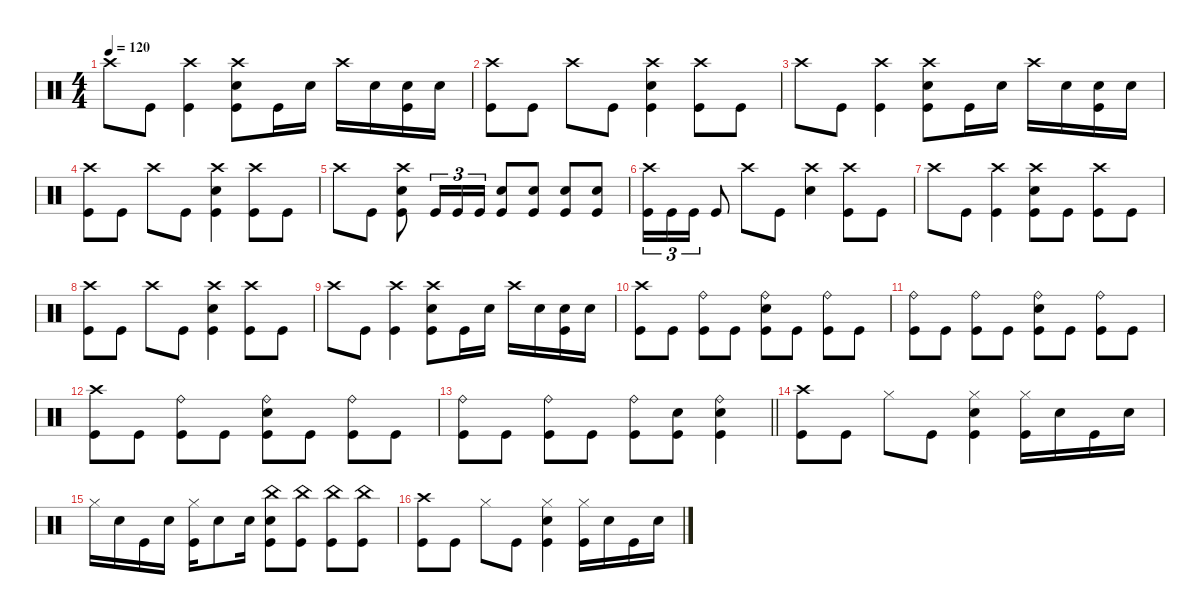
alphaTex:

\defaultSystemsLayout 4
\hideDynamics
\bracketExtendMode nobrackets
\singleTrackTrackNamePolicy hidden
\multiTrackTrackNamePolicy hidden
\firstSystemTrackNameMode fullname
\firstSystemTrackNameOrientation horizontal
\otherSystemsTrackNameOrientation horizontal
\track ("Drums" "drm.") {instrument percussion}
\staff {score}
\articulation defaults
\ts (4 4)
\tempo 120
\clef neutral
\ks c "Crash high (hit)".8{dy f beam Down} "Kick (hit)".8{beam Down}
("Crash high (hit)" "Kick (hit)").4{beam Down} ("Snare (hit) 2" "Crash high (hit)" "Kick (hit)").8{beam Down} "Kick (hit)".16{beam Down} "Snare (hit) 2".16{beam Down} "Crash high (hit)".16{beam Down} "Snare (hit) 2".16{beam Down} ("Snare (hit) 2" "Kick (hit)").16{beam Down} "Snare (hit) 2".16{beam Down} |
("Kick (hit)" "Crash high (hit)").8{beam Down} "Kick (hit)".8{beam Down} "Crash high (hit)".8{beam Down} "Kick (hit)".8{beam Down} ("Kick (hit)" "Snare (hit) 2" "Crash high (hit)").4{beam Down} ("Kick (hit)" "Crash high (hit)").8{beam Down} "Kick (hit)".8{beam Down} |
"Crash high (hit)".8{beam Down} "Kick (hit)".8{beam Down} ("Kick (hit)" "Crash high (hit)").4{beam Down} ("Kick (hit)" "Snare (hit) 2" "Crash high (hit)").8{beam Down} "Kick (hit)".16{beam Down} "Snare (hit) 2".16{beam Down} "Crash high (hit)".16{beam Down} "Snare (hit) 2".16{beam Down} ("Snare (hit) 2" "Kick (hit)").16{beam Down} "Snare (hit) 2".16{beam Down} |
("Kick (hit)" "Crash high (hit)").8{beam Down} "Kick (hit)".8{beam Down} "Crash high (hit)".8{beam Down} "Kick (hit)".8{beam Down} ("Kick (hit)" "Snare (hit) 2" "Crash high (hit)").4{beam Down} ("Kick (hit)" "Crash high (hit)").8{beam Down} "Kick (hit)".8{beam Down} |
"Crash high (hit)".8{beam Down} "Kick (hit)".8{beam Down} ("Kick (hit)" "Snare (hit) 2" "Crash high (hit)").8{beam Down} "Kick (hit)".16{tu (3 2) beam Up} "Kick (hit)".16{tu (3 2) beam Up} "Kick (hit)".16{tu (3 2) beam Up} ("Snare (hit) 2" "Kick (hit)").8{beam Up} ("Snare (hit) 2" "Kick (hit)").8{beam Up} ("Snare (hit) 2" "Kick (hit)").8{beam Up} ("Snare (hit) 2" "Kick (hit)").8{beam Up} |
("Kick (hit)" "Crash high (hit)").16{tu (3 2) beam Down} "Kick (hit)".16{tu (3 2) beam Down} "Kick (hit)".16{tu (3 2) beam Down} "Kick (hit)".8{beam Up} "Crash high (hit)".8{beam Down} "Kick (hit)".8{beam Down} ("Snare (hit) 2" "Crash high (hit)").4{beam Down} ("Kick (hit)" "Crash high (hit)").8{beam Down} "Kick (hit)".8{beam Down} |
"Crash high (hit)".8{beam Down} "Kick (hit)".8{beam Down} ("Crash high (hit)" "Kick (hit)").4{beam Down} ("Snare (hit) 2" "Crash high (hit)" "Kick (hit)").8{beam Down} "Kick (hit)".8{beam Down} ("Kick (hit)" "Crash high (hit)").8{beam Down} "Kick (hit)".8{beam Down} |
("Kick (hit)" "Crash high (hit)").8{beam Down} "Kick (hit)".8{beam Down} "Crash high (hit)".8{beam Down} "Kick (hit)".8{beam Down} ("Kick (hit)" "Snare (hit) 2" "Crash high (hit)").4{beam Down} ("Kick (hit)" "Crash high (hit)").8{beam Down} "Kick (hit)".8{beam Down} |
"Crash high (hit)".8{beam Down} "Kick (hit)".8{beam Down} ("Kick (hit)" "Crash high (hit)").4{beam Down} ("Kick (hit)" "Snare (hit) 2" "Crash high (hit)").8{beam Down} "Kick (hit)".16{beam Down} "Snare (hit) 2".16{beam Down} "Crash high (hit)".16{beam Down} "Snare (hit) 2".16{beam Down} ("Snare (hit) 2" "Kick (hit)").16{beam Down} "Snare (hit) 2".16{beam Down} |
("Crash high (hit)" "Kick (hit)").8{beam Down} "Kick (hit)".8{beam Down} ("Ride (bell)" "Kick (hit)").8{beam Down} "Kick (hit)".8{beam Down} ("Snare (hit) 2" "Ride (bell)" "Kick (hit)").8{beam Down} "Kick (hit)".8{beam Down} ("Ride (bell)" "Kick (hit)").8{beam Down} "Kick (hit)".8{beam Down} |
("Kick (hit)" "Ride (bell)").8{beam Down} "Kick (hit)".8{beam Down} ("Kick (hit)" "Ride (bell)").8{beam Down} "Kick (hit)".8{beam Down} ("Kick (hit)" "Snare (hit) 2" "Ride (bell)").8{beam Down} "Kick (hit)".8{beam Down} ("Kick (hit)" "Ride (bell)").8{beam Down} "Kick (hit)".8{beam Down} |
("Kick (hit)" "Crash high (hit)").8{beam Down} "Kick (hit)".8{beam Down} ("Kick (hit)" "Ride (bell)").8{beam Down} "Kick (hit)".8{beam Down} ("Kick (hit)" "Snare (hit) 2" "Ride (bell)").8{beam Down} "Kick (hit)".8{beam Down} ("Kick (hit)" "Ride (bell)").8{beam Down} "Kick (hit)".8{beam Down} |
\barLineRight lightlight
("Ride (bell)" "Kick (hit)").8{beam Down} "Kick (hit)".8{beam Down} ("Ride (bell)" "Kick (hit)").8{beam Down} "Kick (hit)".8{beam Down} ("Ride (bell)" "Kick (hit)").8{beam Down} ("Snare (hit) 2" "Kick (hit)").8{beam Down} ("Snare (hit) 2" "Ride (bell)" "Kick (hit)").4{beam Down} |
("Crash high (hit)" "Kick (hit)").8{beam Down} "Kick (hit)".8{beam Down} "Hi-Hat (closed)".8{beam Down} "Kick (hit)".8{beam Down} ("Snare (hit) 2" "Hi-Hat (closed)" "Kick (hit)").4{beam Down} ("Hi-Hat (closed)" "Kick (hit)").16{beam Down} "Snare (hit) 2".16{beam Down} "Kick (hit)".16{beam Down} "Snare (hit) 2".16{beam Down} |
"Hi-Hat (closed)".16{beam Down} "Snare (hit) 2".16{beam Down} "Kick (hit)".16{beam Down} "Snare (hit) 2".16{beam Down} ("Hi-Hat (closed)" "Kick (hit)").16{beam Down} "Snare (hit) 2".8{beam Down} "Snare (hit) 2".16{beam Down} ("Kick (hit)" "Snare (hit) 2" "China (hit)").8{beam Down} ("Kick (hit)" "China (hit)").8{beam Down} ("Kick (hit)" "China (hit)").8{beam Down} ("Kick (hit)" "China (hit)").8{beam Down} |
("Kick (hit)" "Crash high (hit)").8{beam Down} "Kick (hit)".8{beam Down} "Hi-Hat (closed)".8{beam Down} "Kick (hit)".8{beam Down} ("Kick (hit)" "Snare (hit) 2" "Hi-Hat (closed)").4{beam Down} ("Kick (hit)" "Hi-Hat (closed)").16{beam Down} "Snare (hit) 2".16{beam Down} "Kick (hit)".16{beam Down} "Snare (hit) 2".16{beam Down}
